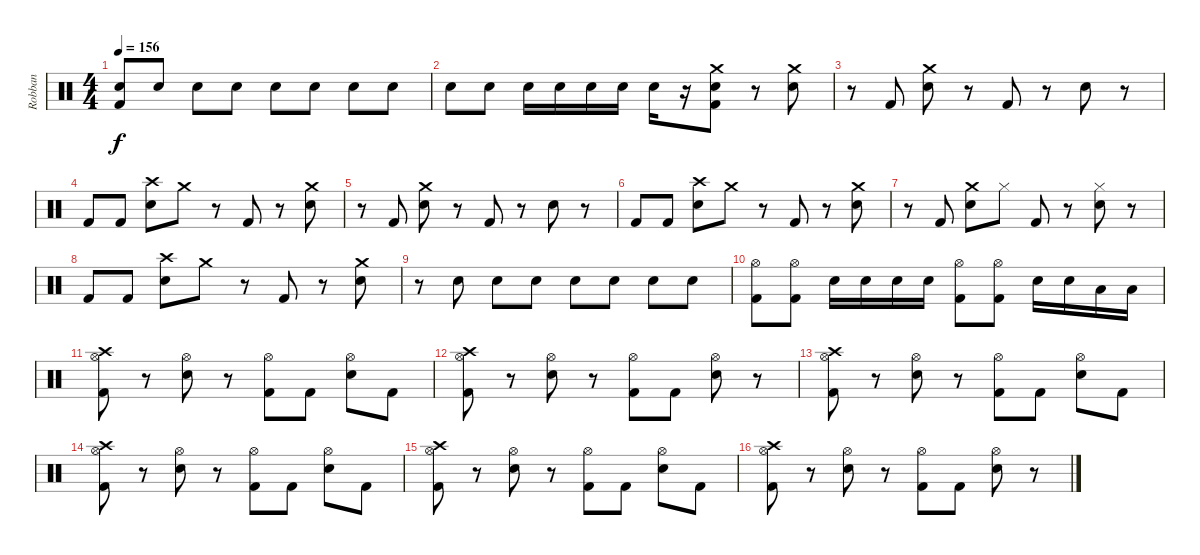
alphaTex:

\track ("Robban" "Robban") {instrument percussion}
\staff {score}
\articulation defaults
\ts (4 4)
\tempo 156
\clef neutral
\ks c
("Electric Snare (hit)" "Kick (hit) 2").8{dy f} "Electric Snare (hit)".8 "Electric Snare (hit)".8 "Electric Snare (hit)".8 "Electric Snare (hit)".8 "Electric Snare (hit)".8 "Electric Snare (hit)".8 "Electric Snare (hit)".8 |
"Electric Snare (hit)".8 "Electric Snare (hit)".8 "Electric Snare (hit)".16 "Electric Snare (hit)".16 "Electric Snare (hit)".16 "Electric Snare (hit)".16 "Electric Snare (hit)".16 r.16 ("Crash medium (hit)" "Electric Snare (hit)" "Kick (hit) 2").8 r.8 ("Crash medium (hit)" "Electric Snare (hit)").8 |
r.8 "Kick (hit) 2".8 ("Crash medium (hit)" "Electric Snare (hit)").8 r.8 "Kick (hit) 2".8 r.8 "Electric Snare (hit)".8 r.8 |
"Kick (hit) 2".8 "Kick (hit) 2".8 ("Crash high (hit)" "Electric Snare (hit)").8 "Crash medium (hit)".8 r.8 "Kick (hit) 2".8 r.8 ("Crash medium (hit)" "Electric Snare (hit)").8 |
r.8 "Kick (hit) 2".8 ("Crash medium (hit)" "Electric Snare (hit)").8 r.8 "Kick (hit) 2".8 r.8 "Electric Snare (hit)".8 r.8 |
"Kick (hit) 2".8 "Kick (hit) 2".8 ("Crash high (hit)" "Electric Snare (hit)").8 "Crash medium (hit)".8 r.8 "Kick (hit) 2".8 r.8 ("Crash medium (hit)" "Electric Snare (hit)").8 |
r.8 "Kick (hit) 2".8 ("Crash medium (hit)" "Electric Snare (hit)").8 "Hi-Hat (closed)".8 "Kick (hit) 2".8 r.8 ("Hi-Hat (closed)" "Electric Snare (hit)").8 r.8 |
"Kick (hit) 2".8 "Kick (hit) 2".8 ("Crash high (hit)" "Electric Snare (hit)").8 "Crash medium (hit)".8 r.8 "Kick (hit) 2".8 r.8 ("Crash medium (hit)" "Electric Snare (hit)").8 |
r.8 "Electric Snare (hit)".8 "Electric Snare (hit)".8 "Electric Snare (hit)".8 "Electric Snare (hit)".8 "Electric Snare (hit)".8 "Electric Snare (hit)".8 "Electric Snare (hit)".8 |
("Hi-Hat (open)" "Kick (hit) 2").8 ("Hi-Hat (open)" "Kick (hit) 2").8 "Electric Snare (hit)".16 "Electric Snare (hit)".16 "Electric Snare (hit)".16 "Electric Snare (hit)".16 ("Hi-Hat (open)" "Kick (hit) 2").8 ("Hi-Hat (open)" "Kick (hit) 2").8 "Electric Snare (hit)".16 "Electric Snare (hit)".16 "Low Tom (hit)".16 "Low Tom (hit)".16 |
("Crash high (hit)" "Hi-Hat (open)" "Kick (hit) 2").8 r.8 ("Hi-Hat (open)" "Electric Snare (hit)").8 r.8 ("Hi-Hat (open)" "Kick (hit) 2").8 "Kick (hit) 2".8 ("Hi-Hat (open)" "Electric Snare (hit)").8 "Kick (hit) 2".8 |
("Crash high (hit)" "Hi-Hat (open)" "Kick (hit) 2").8 r.8 ("Hi-Hat (open)" "Electric Snare (hit)").8 r.8 ("Hi-Hat (open)" "Kick (hit) 2").8 "Kick (hit) 2".8 ("Hi-Hat (open)" "Electric Snare (hit)").8 r.8 |
("Crash high (hit)" "Hi-Hat (open)" "Kick (hit) 2").8 r.8 ("Hi-Hat (open)" "Electric Snare (hit)").8 r.8 ("Hi-Hat (open)" "Kick (hit) 2").8 "Kick (hit) 2".8 ("Hi-Hat (open)" "Electric Snare (hit)").8 "Kick (hit) 2".8 |
("Crash high (hit)" "Hi-Hat (open)" "Kick (hit) 2").8 r.8 ("Hi-Hat (open)" "Electric Snare (hit)").8 r.8 ("Hi-Hat (open)" "Kick (hit) 2").8 "Kick (hit) 2".8 ("Hi-Hat (open)" "Electric Snare (hit)").8 "Kick (hit) 2".8 |
("Crash high (hit)" "Hi-Hat (open)" "Kick (hit) 2").8 r.8 ("Hi-Hat (open)" "Electric Snare (hit)").8 r.8 ("Hi-Hat (open)" "Kick (hit) 2").8 "Kick (hit) 2".8 ("Hi-Hat (open)" "Electric Snare (hit)").8 "Kick (hit) 2".8 |
("Crash high (hit)" "Hi-Hat (open)" "Kick (hit) 2").8 r.8 ("Hi-Hat (open)" "Electric Snare (hit)").8 r.8 ("Hi-Hat (open)" "Kick (hit) 2").8 "Kick (hit) 2".8 ("Hi-Hat (open)" "Electric Snare (hit)").8 r.8
